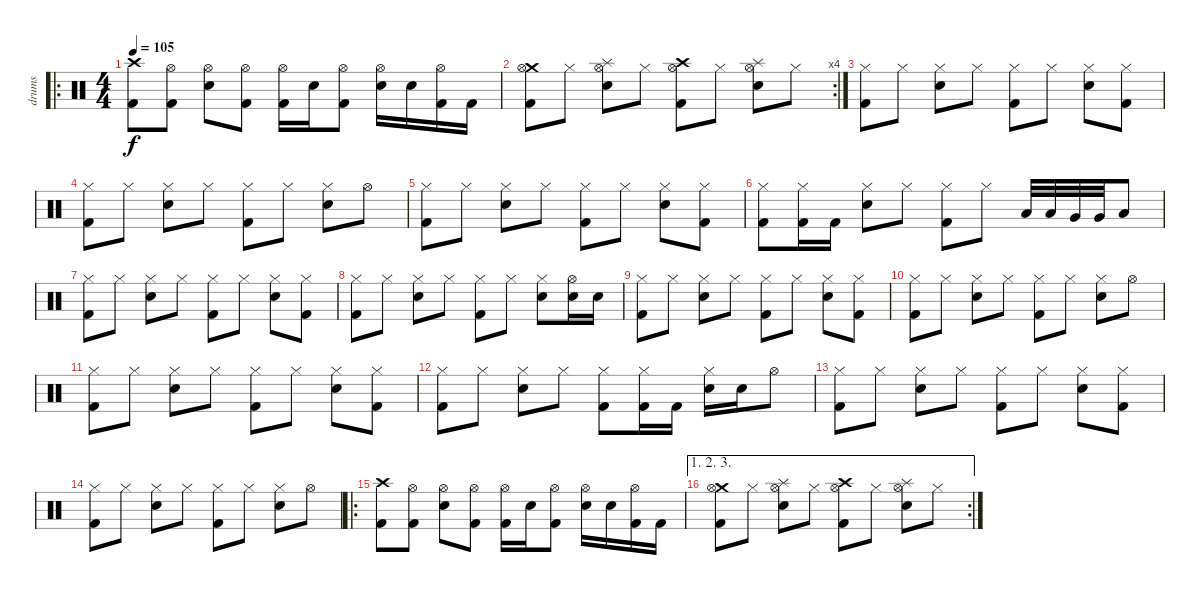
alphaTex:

\track ("drums" "drums") {instrument percussion}
\staff {score}
\articulation defaults
\ro
\ts (4 4)
\tempo 105
\clef neutral
\ks c
("Crash high (hit)" "Kick (hit) 2").8{dy f} ("Hi-Hat (open)" "Kick (hit) 2").8 ("Hi-Hat (open)" "Electric Snare (hit)").8 ("Hi-Hat (open)" "Kick (hit) 2").8 ("Hi-Hat (open)" "Kick (hit) 2").16 "Electric Snare (hit)".16 ("Hi-Hat (open)" "Kick (hit) 2").8 ("Hi-Hat (open)" "Electric Snare (hit)").16 "Electric Snare (hit)".16 ("Hi-Hat (open)" "Kick (hit) 2").16 "Kick (hit) 2".16 |
\rc 4
("Crash medium (hit)" "Hi-Hat (open)" "Kick (hit) 2").8 "Hi-Hat (closed)".8 ("Splash (hit)" "Hi-Hat (open)" "Electric Snare (hit)").8 "Hi-Hat (closed)".8 ("Crash high (hit)" "Hi-Hat (open)" "Kick (hit) 2").8 "Hi-Hat (closed)".8 ("Splash (hit)" "Hi-Hat (open)" "Electric Snare (hit)").8 "Hi-Hat (closed)".8 |
("Hi-Hat (closed)" "Kick (hit) 2").8 "Hi-Hat (closed)".8 ("Hi-Hat (closed)" "Electric Snare (hit)").8 "Hi-Hat (closed)".8 ("Hi-Hat (closed)" "Kick (hit) 2").8 "Hi-Hat (closed)".8 ("Hi-Hat (closed)" "Electric Snare (hit)").8 ("Hi-Hat (closed)" "Kick (hit) 2").8 |
("Hi-Hat (closed)" "Kick (hit) 2").8 "Hi-Hat (closed)".8 ("Hi-Hat (closed)" "Electric Snare (hit)").8 "Hi-Hat (closed)".8 ("Hi-Hat (closed)" "Kick (hit) 2").8 "Hi-Hat (closed)".8 ("Hi-Hat (closed)" "Electric Snare (hit)").8 "Hi-Hat (open)".8 |
("Hi-Hat (closed)" "Kick (hit) 2").8 "Hi-Hat (closed)".8 ("Hi-Hat (closed)" "Electric Snare (hit)").8 "Hi-Hat (closed)".8 ("Hi-Hat (closed)" "Kick (hit) 2").8 "Hi-Hat (closed)".8 ("Hi-Hat (closed)" "Electric Snare (hit)").8 ("Hi-Hat (closed)" "Kick (hit) 2").8 |
("Hi-Hat (closed)" "Kick (hit) 2").8 ("Hi-Hat (closed)" "Kick (hit) 2").16 "Kick (hit) 2".16 ("Hi-Hat (closed)" "Electric Snare (hit)").8 "Hi-Hat (closed)".8 ("Hi-Hat (closed)" "Kick (hit) 2").8 "Hi-Hat (closed)".8 "Low Floor Tom (hit)".32 "Low Floor Tom (hit)".32 "Very Low Tom (hit)".32 "Very Low Tom (hit)".32 "Low Tom (hit)".8 |
("Hi-Hat (closed)" "Kick (hit) 2").8 "Hi-Hat (closed)".8 ("Hi-Hat (closed)" "Electric Snare (hit)").8 "Hi-Hat (closed)".8 ("Hi-Hat (closed)" "Kick (hit) 2").8 "Hi-Hat (closed)".8 ("Hi-Hat (closed)" "Electric Snare (hit)").8 ("Hi-Hat (closed)" "Kick (hit) 2").8 |
("Hi-Hat (closed)" "Kick (hit) 2").8 "Hi-Hat (closed)".8 ("Hi-Hat (closed)" "Electric Snare (hit)").8 "Hi-Hat (closed)".8 ("Hi-Hat (closed)" "Kick (hit) 2").8 "Hi-Hat (closed)".8 ("Hi-Hat (closed)" "Electric Snare (hit)").8 ("Hi-Hat (open)" "Electric Snare (hit)").16 "Electric Snare (hit)".16 |
("Hi-Hat (closed)" "Kick (hit) 2").8 "Hi-Hat (closed)".8 ("Hi-Hat (closed)" "Electric Snare (hit)").8 "Hi-Hat (closed)".8 ("Hi-Hat (closed)" "Kick (hit) 2").8 "Hi-Hat (closed)".8 ("Hi-Hat (closed)" "Electric Snare (hit)").8 ("Hi-Hat (closed)" "Kick (hit) 2").8 |
("Hi-Hat (closed)" "Kick (hit) 2").8 "Hi-Hat (closed)".8 ("Hi-Hat (closed)" "Electric Snare (hit)").8 "Hi-Hat (closed)".8 ("Hi-Hat (closed)" "Kick (hit) 2").8 "Hi-Hat (closed)".8 ("Hi-Hat (closed)" "Electric Snare (hit)").8 "Hi-Hat (open)".8 |
("Hi-Hat (closed)" "Kick (hit) 2").8 "Hi-Hat (closed)".8 ("Hi-Hat (closed)" "Electric Snare (hit)").8 "Hi-Hat (closed)".8 ("Hi-Hat (closed)" "Kick (hit) 2").8 "Hi-Hat (closed)".8 ("Hi-Hat (closed)" "Electric Snare (hit)").8 ("Hi-Hat (closed)" "Kick (hit) 2").8 |
("Hi-Hat (closed)" "Kick (hit) 2").8 "Hi-Hat (closed)".8 ("Hi-Hat (closed)" "Electric Snare (hit)").8 "Hi-Hat (closed)".8 ("Hi-Hat (closed)" "Kick (hit) 2").8 ("Hi-Hat (closed)" "Kick (hit) 2").16 "Kick (hit) 2".16 ("Hi-Hat (closed)" "Electric Snare (hit)").16 "Electric Snare (hit)".16 "Hi-Hat (open)".8 |
("Hi-Hat (closed)" "Kick (hit) 2").8 "Hi-Hat (closed)".8 ("Hi-Hat (closed)" "Electric Snare (hit)").8 "Hi-Hat (closed)".8 ("Hi-Hat (closed)" "Kick (hit) 2").8 "Hi-Hat (closed)".8 ("Hi-Hat (closed)" "Electric Snare (hit)").8 ("Hi-Hat (closed)" "Kick (hit) 2").8 |
("Hi-Hat (closed)" "Kick (hit) 2").8 "Hi-Hat (closed)".8 ("Hi-Hat (closed)" "Electric Snare (hit)").8 "Hi-Hat (closed)".8 ("Hi-Hat (closed)" "Kick (hit) 2").8 "Hi-Hat (closed)".8 ("Hi-Hat (closed)" "Electric Snare (hit)").8 "Hi-Hat (open)".8 |
\ro
("Crash high (hit)" "Kick (hit) 2").8 ("Hi-Hat (open)" "Kick (hit) 2").8 ("Hi-Hat (open)" "Electric Snare (hit)").8 ("Hi-Hat (open)" "Kick (hit) 2").8 ("Hi-Hat (open)" "Kick (hit) 2").16 "Electric Snare (hit)".16 ("Hi-Hat (open)" "Kick (hit) 2").8 ("Hi-Hat (open)" "Electric Snare (hit)").16 "Electric Snare (hit)".16 ("Hi-Hat (open)" "Kick (hit) 2").16 "Kick (hit) 2".16 |
\ae (1 2 3)
\rc 2
("Crash medium (hit)" "Hi-Hat (open)" "Kick (hit) 2").8 "Hi-Hat (closed)".8 ("Splash (hit)" "Hi-Hat (open)" "Electric Snare (hit)").8 "Hi-Hat (closed)".8 ("Crash high (hit)" "Hi-Hat (open)" "Kick (hit) 2").8 "Hi-Hat (closed)".8 ("Splash (hit)" "Hi-Hat (open)" "Electric Snare (hit)").8 "Hi-Hat (closed)".8
